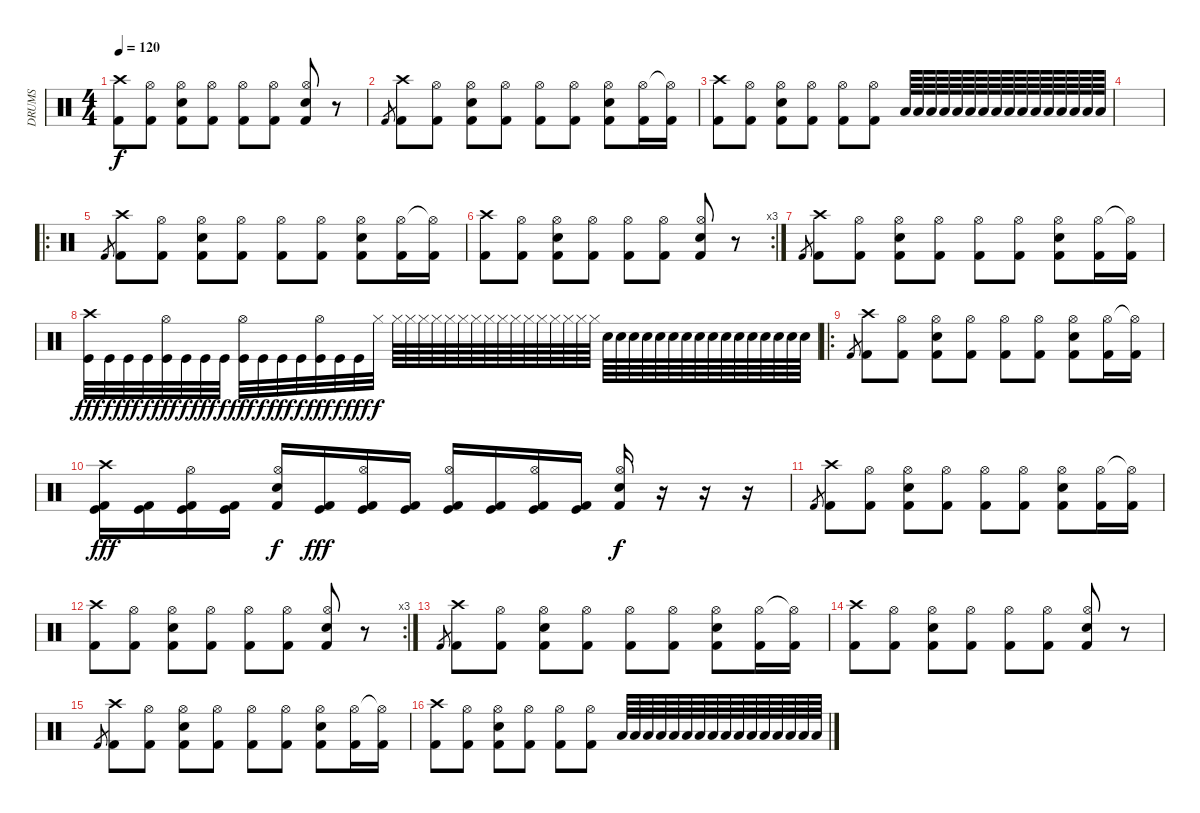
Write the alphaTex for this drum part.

\track ("DRUMS" "DRUMS") {instrument percussion}
\staff {score}
\articulation defaults
\ts (4 4)
\tempo 120
\clef neutral
\ks c
("Crash high (hit)" "Kick (hit) 2").8{dy f} ("Hi-Hat (open)" "Kick (hit) 2").8 ("Hi-Hat (open)" "Snare (hit) 2" "Kick (hit) 2").8 ("Hi-Hat (open)" "Kick (hit) 2").8 ("Hi-Hat (open)" "Kick (hit) 2").8 ("Hi-Hat (open)" "Kick (hit) 2").8 ("Hi-Hat (open)" "Snare (hit) 2" "Kick (hit) 2").8 r.8 |
"Kick (hit) 2".8{gr} ("Crash high (hit)" "Kick (hit) 2").8 ("Hi-Hat (open)" "Kick (hit) 2").8 ("Hi-Hat (open)" "Snare (hit) 2" "Kick (hit) 2").8 ("Hi-Hat (open)" "Kick (hit) 2").8 ("Hi-Hat (open)" "Kick (hit) 2").8 ("Hi-Hat (open)" "Kick (hit) 2").8 ("Hi-Hat (open)" "Snare (hit) 2" "Kick (hit) 2").8 ("Hi-Hat (open)" "Kick (hit) 2").16 ("Hi-Hat (open)"{t} "Kick (hit) 2").16 |
("Crash high (hit)" "Kick (hit) 2").8 ("Hi-Hat (open)" "Kick (hit) 2").8 ("Hi-Hat (open)" "Snare (hit) 2" "Kick (hit) 2").8 ("Hi-Hat (open)" "Kick (hit) 2").8 ("Hi-Hat (open)" "Kick (hit) 2").8 ("Hi-Hat (open)" "Kick (hit) 2").8 "Low Floor Tom (hit)".64 "Low Floor Tom (hit)".64 "Low Floor Tom (hit)".64 "Low Floor Tom (hit)".64 "Low Floor Tom (hit)".64 "Low Floor Tom (hit)".64 "Low Floor Tom (hit)".64 "Low Floor Tom (hit)".64 "Low Floor Tom (hit)".64 "Low Floor Tom (hit)".64 "Low Floor Tom (hit)".64 "Low Floor Tom (hit)".64 "Low Floor Tom (hit)".64 "Low Floor Tom (hit)".64 "Low Floor Tom (hit)".64 "Low Floor Tom (hit)".64 |
|
\ro "Kick (hit) 2".8{gr}
("Crash high (hit)" "Kick (hit) 2").8 ("Hi-Hat (open)" "Kick (hit) 2").8 ("Hi-Hat (open)" "Snare (hit) 2" "Kick (hit) 2").8 ("Hi-Hat (open)" "Kick (hit) 2").8 ("Hi-Hat (open)" "Kick (hit) 2").8 ("Hi-Hat (open)" "Kick (hit) 2").8 ("Hi-Hat (open)" "Snare (hit) 2" "Kick (hit) 2").8 ("Hi-Hat (open)" "Kick (hit) 2").16 ("Hi-Hat (open)"{t} "Kick (hit) 2").16 |
\rc 3
("Crash high (hit)" "Kick (hit) 2").8 ("Hi-Hat (open)" "Kick (hit) 2").8 ("Hi-Hat (open)" "Snare (hit) 2" "Kick (hit) 2").8 ("Hi-Hat (open)" "Kick (hit) 2").8 ("Hi-Hat (open)" "Kick (hit) 2").8 ("Hi-Hat (open)" "Kick (hit) 2").8 ("Hi-Hat (open)" "Snare (hit) 2" "Kick (hit) 2").8 r.8 |
"Kick (hit) 2".8{gr} ("Crash high (hit)" "Kick (hit) 2").8 ("Hi-Hat (open)" "Kick (hit) 2").8 ("Hi-Hat (open)" "Snare (hit) 2" "Kick (hit) 2").8 ("Hi-Hat (open)" "Kick (hit) 2").8 ("Hi-Hat (open)" "Kick (hit) 2").8 ("Hi-Hat (open)" "Kick (hit) 2").8 ("Hi-Hat (open)" "Snare (hit) 2" "Kick (hit) 2").8 ("Hi-Hat (open)" "Kick (hit) 2").16 ("Hi-Hat (open)"{t} "Kick (hit) 2").16 |
("Crash high (hit)" "Kick (hit)").32{dy fff} "Kick (hit)".32{dy f} "Kick (hit)".32{dy fff} "Kick (hit)".32{dy f} ("Hi-Hat (open)" "Kick (hit)").32{dy fff} "Kick (hit)".32{dy f} "Kick (hit)".32{dy fff} "Kick (hit)".32{dy f} ("Hi-Hat (open)" "Kick (hit)").32{dy fff} "Kick (hit)".32{dy f} "Kick (hit)".32{dy fff} "Kick (hit)".32{dy f} ("Hi-Hat (open)" "Kick (hit)").32{dy fff} "Kick (hit)".32{dy f} "Kick (hit)".32{dy fff} "Hi-Hat (closed)".32{dy f} "Hi-Hat (closed)".64 "Hi-Hat (closed)".64 "Hi-Hat (closed)".64 "Hi-Hat (closed)".64 "Hi-Hat (closed)".64 "Hi-Hat (closed)".64 "Hi-Hat (closed)".64 "Hi-Hat (closed)".64 "Hi-Hat (closed)".64 "Hi-Hat (closed)".64 "Hi-Hat (closed)".64 "Hi-Hat (closed)".64 "Hi-Hat (closed)".64 "Hi-Hat (closed)".64 "Hi-Hat (closed)".64 "Hi-Hat (closed)".64 "Electric Snare (hit)".64 "Electric Snare (hit)".64 "Electric Snare (hit)".64 "Electric Snare (hit)".64 "Electric Snare (hit)".64 "Electric Snare (hit)".64 "Electric Snare (hit)".64 "Electric Snare (hit)".64 "Electric Snare (hit)".64 "Electric Snare (hit)".64 "Electric Snare (hit)".64 "Electric Snare (hit)".64 "Electric Snare (hit)".64 "Electric Snare (hit)".64 "Electric Snare (hit)".64 "Electric Snare (hit)".64 |
\ro "Kick (hit) 2".8{gr}
("Crash high (hit)" "Kick (hit) 2").8 ("Hi-Hat (open)" "Kick (hit) 2").8 ("Hi-Hat (open)" "Snare (hit) 2" "Kick (hit) 2").8 ("Hi-Hat (open)" "Kick (hit) 2").8 ("Hi-Hat (open)" "Kick (hit) 2").8 ("Hi-Hat (open)" "Kick (hit) 2").8 ("Hi-Hat (open)" "Snare (hit) 2" "Kick (hit) 2").8 ("Hi-Hat (open)" "Kick (hit) 2").16 ("Hi-Hat (open)"{t} "Kick (hit) 2").16 |
("Crash high (hit)" "Kick (hit)" "Kick (hit) 2").16{dy fff} ("Kick (hit)" "Kick (hit) 2").16 ("Hi-Hat (open)" "Kick (hit)" "Kick (hit) 2").16 ("Kick (hit)" "Kick (hit) 2").16 ("Hi-Hat (open)" "Snare (hit) 2" "Kick (hit) 2").16{dy f} ("Kick (hit)" "Kick (hit) 2").16{dy fff} ("Hi-Hat (open)" "Kick (hit)" "Kick (hit) 2").16 ("Kick (hit)" "Kick (hit) 2").16 ("Hi-Hat (open)" "Kick (hit)" "Kick (hit) 2").16 ("Kick (hit)" "Kick (hit) 2").16 ("Hi-Hat (open)" "Kick (hit)" "Kick (hit) 2").16 ("Kick (hit)" "Kick (hit) 2").16 ("Hi-Hat (open)" "Snare (hit) 2" "Kick (hit) 2").16{dy f} r.16 r.16 r.16 |
"Kick (hit) 2".8{gr} ("Crash high (hit)" "Kick (hit) 2").8 ("Hi-Hat (open)" "Kick (hit) 2").8 ("Hi-Hat (open)" "Snare (hit) 2" "Kick (hit) 2").8 ("Hi-Hat (open)" "Kick (hit) 2").8 ("Hi-Hat (open)" "Kick (hit) 2").8 ("Hi-Hat (open)" "Kick (hit) 2").8 ("Hi-Hat (open)" "Snare (hit) 2" "Kick (hit) 2").8 ("Hi-Hat (open)" "Kick (hit) 2").16 ("Hi-Hat (open)"{t} "Kick (hit) 2").16 |
\rc 3
("Crash high (hit)" "Kick (hit) 2").8 ("Hi-Hat (open)" "Kick (hit) 2").8 ("Hi-Hat (open)" "Snare (hit) 2" "Kick (hit) 2").8 ("Hi-Hat (open)" "Kick (hit) 2").8 ("Hi-Hat (open)" "Kick (hit) 2").8 ("Hi-Hat (open)" "Kick (hit) 2").8 ("Hi-Hat (open)" "Snare (hit) 2" "Kick (hit) 2").8 r.8 |
"Kick (hit) 2".8{gr} ("Crash high (hit)" "Kick (hit) 2").8 ("Hi-Hat (open)" "Kick (hit) 2").8 ("Hi-Hat (open)" "Snare (hit) 2" "Kick (hit) 2").8 ("Hi-Hat (open)" "Kick (hit) 2").8 ("Hi-Hat (open)" "Kick (hit) 2").8 ("Hi-Hat (open)" "Kick (hit) 2").8 ("Hi-Hat (open)" "Snare (hit) 2" "Kick (hit) 2").8 ("Hi-Hat (open)" "Kick (hit) 2").16 ("Hi-Hat (open)"{t} "Kick (hit) 2").16 |
("Crash high (hit)" "Kick (hit) 2").8 ("Hi-Hat (open)" "Kick (hit) 2").8 ("Hi-Hat (open)" "Snare (hit) 2" "Kick (hit) 2").8 ("Hi-Hat (open)" "Kick (hit) 2").8 ("Hi-Hat (open)" "Kick (hit) 2").8 ("Hi-Hat (open)" "Kick (hit) 2").8 ("Hi-Hat (open)" "Snare (hit) 2" "Kick (hit) 2").8 r.8 |
"Kick (hit) 2".8{gr} ("Crash high (hit)" "Kick (hit) 2").8 ("Hi-Hat (open)" "Kick (hit) 2").8 ("Hi-Hat (open)" "Snare (hit) 2" "Kick (hit) 2").8 ("Hi-Hat (open)" "Kick (hit) 2").8 ("Hi-Hat (open)" "Kick (hit) 2").8 ("Hi-Hat (open)" "Kick (hit) 2").8 ("Hi-Hat (open)" "Snare (hit) 2" "Kick (hit) 2").8 ("Hi-Hat (open)" "Kick (hit) 2").16 ("Hi-Hat (open)"{t} "Kick (hit) 2").16 |
("Crash high (hit)" "Kick (hit) 2").8 ("Hi-Hat (open)" "Kick (hit) 2").8 ("Hi-Hat (open)" "Snare (hit) 2" "Kick (hit) 2").8 ("Hi-Hat (open)" "Kick (hit) 2").8 ("Hi-Hat (open)" "Kick (hit) 2").8 ("Hi-Hat (open)" "Kick (hit) 2").8 "Low Floor Tom (hit)".64 "Low Floor Tom (hit)".64 "Low Floor Tom (hit)".64 "Low Floor Tom (hit)".64 "Low Floor Tom (hit)".64 "Low Floor Tom (hit)".64 "Low Floor Tom (hit)".64 "Low Floor Tom (hit)".64 "Low Floor Tom (hit)".64 "Low Floor Tom (hit)".64 "Low Floor Tom (hit)".64 "Low Floor Tom (hit)".64 "Low Floor Tom (hit)".64 "Low Floor Tom (hit)".64 "Low Floor Tom (hit)".64 "Low Floor Tom (hit)".64
